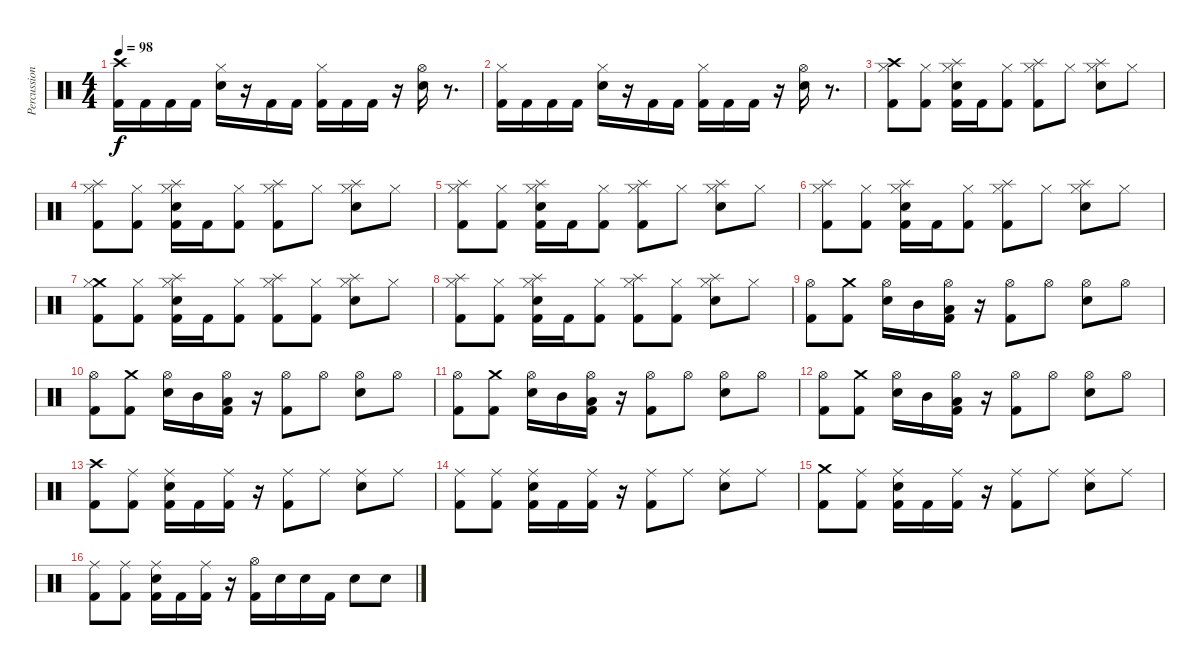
\track ("Percussion" "Percussion") {instrument percussion}
\staff {score}
\articulation defaults
\ts (4 4)
\tempo 98
\clef neutral
\ks c
("Crash high (hit)" "Kick (hit) 2").16{dy f} "Kick (hit) 2".16 "Kick (hit) 2".16 "Kick (hit) 2".16 ("Hi-Hat (closed)" "Electric Snare (hit)").16 r.16 "Kick (hit) 2".16 "Kick (hit) 2".16 ("Hi-Hat (closed)" "Kick (hit) 2").16 "Kick (hit) 2".16 "Kick (hit) 2".16 r.16 ("Hi-Hat (open)" "Electric Snare (hit)").16 r.8{d} |
("Hi-Hat (closed)" "Kick (hit) 2").16 "Kick (hit) 2".16 "Kick (hit) 2".16 "Kick (hit) 2".16 ("Hi-Hat (closed)" "Electric Snare (hit)").16 r.16 "Kick (hit) 2".16 "Kick (hit) 2".16 ("Hi-Hat (closed)" "Kick (hit) 2").16 "Kick (hit) 2".16 "Kick (hit) 2".16 r.16 ("Hi-Hat (open)" "Electric Snare (hit)").16 r.8{d} |
("Crash high (hit)" "Hi-Hat (closed)" "Kick (hit) 2").8 ("Hi-Hat (closed)" "Kick (hit) 2").8 ("Splash (hit)" "Hi-Hat (closed)" "Electric Snare (hit)" "Kick (hit) 2").16 "Kick (hit) 2".16 ("Hi-Hat (closed)" "Kick (hit) 2").8 ("Splash (hit)" "Hi-Hat (closed)" "Kick (hit) 2").8 "Hi-Hat (closed)".8 ("Splash (hit)" "Hi-Hat (closed)" "Electric Snare (hit)").8 "Hi-Hat (closed)".8 |
("Splash (hit)" "Hi-Hat (closed)" "Kick (hit) 2").8 ("Hi-Hat (closed)" "Kick (hit) 2").8 ("Splash (hit)" "Hi-Hat (closed)" "Electric Snare (hit)" "Kick (hit) 2").16 "Kick (hit) 2".16 ("Hi-Hat (closed)" "Kick (hit) 2").8 ("Splash (hit)" "Hi-Hat (closed)" "Kick (hit) 2").8 "Hi-Hat (closed)".8 ("Splash (hit)" "Hi-Hat (closed)" "Electric Snare (hit)").8 "Hi-Hat (closed)".8 |
("Splash (hit)" "Hi-Hat (closed)" "Kick (hit) 2").8 ("Hi-Hat (closed)" "Kick (hit) 2").8 ("Splash (hit)" "Hi-Hat (closed)" "Electric Snare (hit)" "Kick (hit) 2").16 "Kick (hit) 2".16 ("Hi-Hat (closed)" "Kick (hit) 2").8 ("Splash (hit)" "Hi-Hat (closed)" "Kick (hit) 2").8 "Hi-Hat (closed)".8 ("Splash (hit)" "Hi-Hat (closed)" "Electric Snare (hit)").8 "Hi-Hat (closed)".8 |
("Splash (hit)" "Hi-Hat (closed)" "Kick (hit) 2").8 ("Hi-Hat (closed)" "Kick (hit) 2").8 ("Splash (hit)" "Hi-Hat (closed)" "Electric Snare (hit)" "Kick (hit) 2").16 "Kick (hit) 2".16 ("Hi-Hat (closed)" "Kick (hit) 2").8 ("Splash (hit)" "Hi-Hat (closed)" "Kick (hit) 2").8 "Hi-Hat (closed)".8 ("Splash (hit)" "Hi-Hat (closed)" "Electric Snare (hit)").8 "Hi-Hat (closed)".8 |
("Crash medium (hit)" "Hi-Hat (closed)" "Kick (hit) 2").8 ("Hi-Hat (closed)" "Kick (hit) 2").8 ("Splash (hit)" "Hi-Hat (closed)" "Electric Snare (hit)" "Kick (hit) 2").16 "Kick (hit) 2".16 ("Hi-Hat (closed)" "Kick (hit) 2").8 ("Splash (hit)" "Hi-Hat (closed)" "Kick (hit) 2").8 ("Hi-Hat (closed)" "Kick (hit) 2").8 ("Splash (hit)" "Hi-Hat (closed)" "Electric Snare (hit)").8 "Hi-Hat (closed)".8 |
("Splash (hit)" "Hi-Hat (closed)" "Kick (hit) 2").8 ("Hi-Hat (closed)" "Kick (hit) 2").8 ("Splash (hit)" "Hi-Hat (closed)" "Electric Snare (hit)" "Kick (hit) 2").16 "Kick (hit) 2".16 ("Hi-Hat (closed)" "Kick (hit) 2").8 ("Splash (hit)" "Hi-Hat (closed)" "Kick (hit) 2").8 ("Hi-Hat (closed)" "Kick (hit) 2").8 ("Splash (hit)" "Hi-Hat (closed)" "Electric Snare (hit)").8 "Hi-Hat (closed)".8 |
("Hi-Hat (open)" "Kick (hit) 2").8 ("Crash medium (hit)" "Kick (hit) 2").8 ("Hi-Hat (open)" "Electric Snare (hit)").16 "Mid Tom (hit)".16 ("Hi-Hat (open)" "Low Tom (hit)" "Kick (hit) 2").16 r.16 ("Hi-Hat (open)" "Kick (hit) 2").8 "Hi-Hat (open)".8 ("Hi-Hat (open)" "Electric Snare (hit)").8 "Hi-Hat (open)".8 |
("Hi-Hat (open)" "Kick (hit) 2").8 ("Crash medium (hit)" "Kick (hit) 2").8 ("Hi-Hat (open)" "Electric Snare (hit)").16 "Mid Tom (hit)".16 ("Hi-Hat (open)" "Low Tom (hit)" "Kick (hit) 2").16 r.16 ("Hi-Hat (open)" "Kick (hit) 2").8 "Hi-Hat (open)".8 ("Hi-Hat (open)" "Electric Snare (hit)").8 "Hi-Hat (open)".8 |
("Hi-Hat (open)" "Kick (hit) 2").8 ("Crash medium (hit)" "Kick (hit) 2").8 ("Hi-Hat (open)" "Electric Snare (hit)").16 "Mid Tom (hit)".16 ("Hi-Hat (open)" "Low Tom (hit)" "Kick (hit) 2").16 r.16 ("Hi-Hat (open)" "Kick (hit) 2").8 "Hi-Hat (open)".8 ("Hi-Hat (open)" "Electric Snare (hit)").8 "Hi-Hat (open)".8 |
("Hi-Hat (open)" "Kick (hit) 2").8 ("Crash medium (hit)" "Kick (hit) 2").8 ("Hi-Hat (open)" "Electric Snare (hit)").16 "Mid Tom (hit)".16 ("Hi-Hat (open)" "Low Tom (hit)" "Kick (hit) 2").16 r.16 ("Hi-Hat (open)" "Kick (hit) 2").8 "Hi-Hat (open)".8 ("Hi-Hat (open)" "Electric Snare (hit)").8 "Hi-Hat (open)".8 |
("Crash high (hit)" "Kick (hit) 2").8 ("Ride (middle)" "Kick (hit) 2").8 ("Ride (middle)" "Electric Snare (hit)" "Kick (hit) 2").16 "Kick (hit) 2".16 ("Ride (middle)" "Kick (hit) 2").16 r.16 ("Ride (middle)" "Kick (hit) 2").8 "Ride (middle)".8 ("Ride (middle)" "Electric Snare (hit)").8 "Ride (middle)".8 |
("Ride (middle)" "Kick (hit) 2").8 ("Ride (middle)" "Kick (hit) 2").8 ("Ride (middle)" "Electric Snare (hit)" "Kick (hit) 2").16 "Kick (hit) 2".16 ("Ride (middle)" "Kick (hit) 2").16 r.16 ("Ride (middle)" "Kick (hit) 2").8 "Ride (middle)".8 ("Ride (middle)" "Electric Snare (hit)").8 "Ride (middle)".8 |
("Crash medium (hit)" "Kick (hit) 2").8 ("Ride (middle)" "Kick (hit) 2").8 ("Ride (middle)" "Electric Snare (hit)" "Kick (hit) 2").16 "Kick (hit) 2".16 ("Ride (middle)" "Kick (hit) 2").16 r.16 ("Ride (middle)" "Kick (hit) 2").8 "Ride (middle)".8 ("Ride (middle)" "Electric Snare (hit)").8 "Ride (middle)".8 |
("Ride (middle)" "Kick (hit) 2").8 ("Ride (middle)" "Kick (hit) 2").8 ("Ride (middle)" "Electric Snare (hit)" "Kick (hit) 2").16 "Kick (hit) 2".16 ("Ride (middle)" "Kick (hit) 2").16 r.16 ("Hi-Hat (open)" "Kick (hit) 2").16 "Electric Snare (hit)".16 "Electric Snare (hit)".16 "Kick (hit) 2".16 "Electric Snare (hit)".8 "Electric Snare (hit)".8
